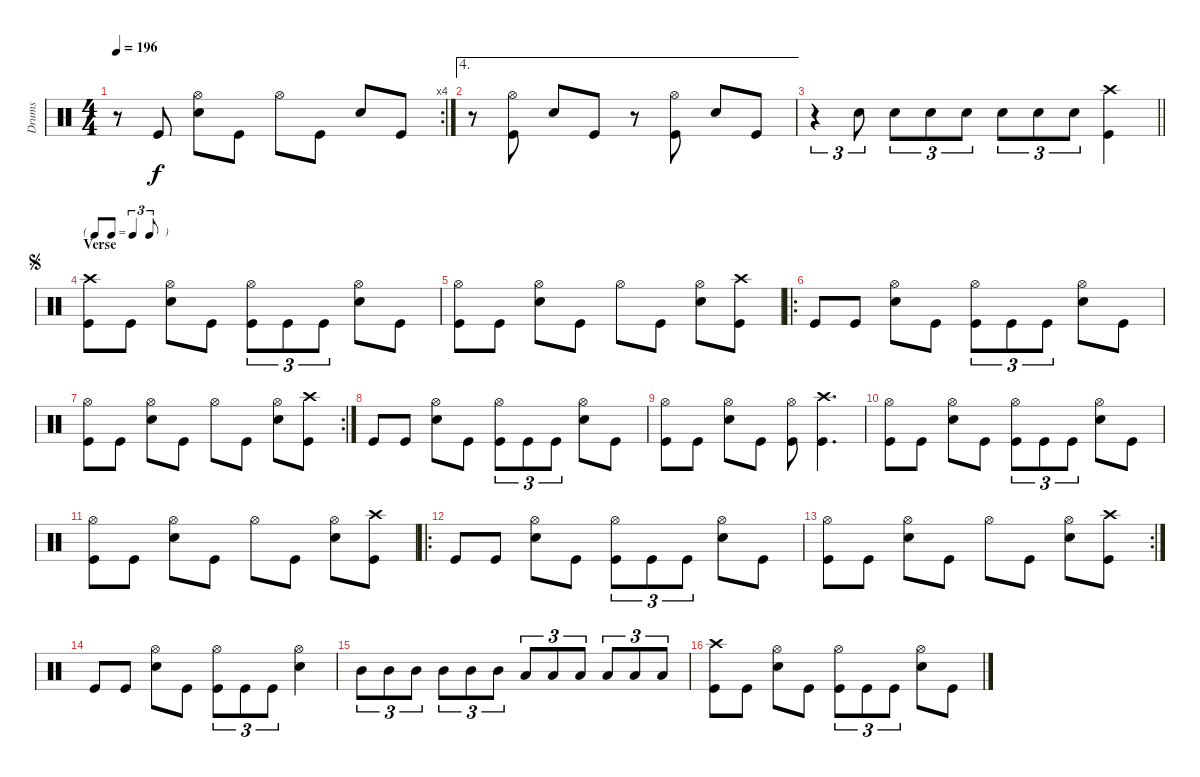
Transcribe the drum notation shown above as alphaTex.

\track ("Drums" "Drums") {instrument percussion}
\staff {score}
\articulation defaults
\rc 4
\ts (4 4)
\tempo 196
\clef neutral
\ks c
r.8{dy f} "Kick (hit)".8 ("Hi-Hat (open)" "Snare (hit) 2").8 "Kick (hit)".8 "Hi-Hat (open)".8 "Kick (hit)".8 "Snare (hit) 2".8 "Kick (hit)".8 |
\ae 4
r.8 ("Hi-Hat (open)" "Kick (hit)").8 "Snare (hit) 2".8 "Kick (hit)".8 r.8 ("Hi-Hat (open)" "Kick (hit)").8 "Snare (hit) 2".8 "Kick (hit)".8 |
\barLineRight lightlight
r.4{tu (3 2)} "Snare (hit) 2".8{tu (3 2)} "Snare (hit) 2".8{tu (3 2)} "Snare (hit) 2".8{tu (3 2)} "Snare (hit) 2".8{tu (3 2)} "Snare (hit) 2".8{tu (3 2)} "Snare (hit) 2".8{tu (3 2)} "Snare (hit) 2".8{tu (3 2)} ("Crash high (hit)" "Kick (hit)").4 |
\tf triplet8th
\section ("" "Verse")
\jump segno
("Crash high (hit)" "Kick (hit)").8 "Kick (hit)".8 ("Hi-Hat (open)" "Snare (hit) 2").8 "Kick (hit)".8 ("Hi-Hat (open)" "Kick (hit)").8{tu (3 2)} "Kick (hit)".8{tu (3 2)} "Kick (hit)".8{tu (3 2)} ("Hi-Hat (open)" "Snare (hit) 2").8 "Kick (hit)".8 |
("Hi-Hat (open)" "Kick (hit)").8 "Kick (hit)".8 ("Hi-Hat (open)" "Snare (hit) 2").8 "Kick (hit)".8 "Hi-Hat (open)".8 "Kick (hit)".8 ("Hi-Hat (open)" "Snare (hit) 2").8 ("Crash high (hit)" "Kick (hit)").8 |
\ro "Kick (hit)".8 "Kick (hit)".8
("Hi-Hat (open)" "Snare (hit) 2").8 "Kick (hit)".8 ("Hi-Hat (open)" "Kick (hit)").8{tu (3 2)} "Kick (hit)".8{tu (3 2)} "Kick (hit)".8{tu (3 2)} ("Hi-Hat (open)" "Snare (hit) 2").8 "Kick (hit)".8 |
\rc 2
("Hi-Hat (open)" "Kick (hit)").8 "Kick (hit)".8 ("Hi-Hat (open)" "Snare (hit) 2").8 "Kick (hit)".8 "Hi-Hat (open)".8 "Kick (hit)".8 ("Hi-Hat (open)" "Snare (hit) 2").8 ("Crash high (hit)" "Kick (hit)").8 |
"Kick (hit)".8 "Kick (hit)".8 ("Hi-Hat (open)" "Snare (hit) 2").8 "Kick (hit)".8 ("Hi-Hat (open)" "Kick (hit)").8{tu (3 2)} "Kick (hit)".8{tu (3 2)} "Kick (hit)".8{tu (3 2)} ("Hi-Hat (open)" "Snare (hit) 2").8 "Kick (hit)".8 |
("Hi-Hat (open)" "Kick (hit)").8 "Kick (hit)".8 ("Hi-Hat (open)" "Snare (hit) 2").8 "Kick (hit)".8 ("Hi-Hat (open)" "Kick (hit)").8 ("Crash high (hit)" "Kick (hit)").4{d} |
("Hi-Hat (open)" "Kick (hit)").8 "Kick (hit)".8 ("Hi-Hat (open)" "Snare (hit) 2").8 "Kick (hit)".8 ("Hi-Hat (open)" "Kick (hit)").8{tu (3 2)} "Kick (hit)".8{tu (3 2)} "Kick (hit)".8{tu (3 2)} ("Hi-Hat (open)" "Snare (hit) 2").8 "Kick (hit)".8 |
("Hi-Hat (open)" "Kick (hit)").8 "Kick (hit)".8 ("Hi-Hat (open)" "Snare (hit) 2").8 "Kick (hit)".8 "Hi-Hat (open)".8 "Kick (hit)".8 ("Hi-Hat (open)" "Snare (hit) 2").8 ("Crash high (hit)" "Kick (hit)").8 |
\ro "Kick (hit)".8 "Kick (hit)".8
("Hi-Hat (open)" "Snare (hit) 2").8 "Kick (hit)".8 ("Hi-Hat (open)" "Kick (hit)").8{tu (3 2)} "Kick (hit)".8{tu (3 2)} "Kick (hit)".8{tu (3 2)} ("Hi-Hat (open)" "Snare (hit) 2").8 "Kick (hit)".8 |
\rc 2
("Hi-Hat (open)" "Kick (hit)").8 "Kick (hit)".8 ("Hi-Hat (open)" "Snare (hit) 2").8 "Kick (hit)".8 "Hi-Hat (open)".8 "Kick (hit)".8 ("Hi-Hat (open)" "Snare (hit) 2").8 ("Crash high (hit)" "Kick (hit)").8 |
"Kick (hit)".8 "Kick (hit)".8 ("Hi-Hat (open)" "Snare (hit) 2").8 "Kick (hit)".8 ("Hi-Hat (open)" "Kick (hit)").8{tu (3 2)} "Kick (hit)".8{tu (3 2)} "Kick (hit)".8{tu (3 2)} ("Hi-Hat (open)" "Snare (hit) 2").4 |
"Mid Tom (hit)".8{tu (3 2)} "Mid Tom (hit)".8{tu (3 2)} "Mid Tom (hit)".8{tu (3 2)} "Mid Tom (hit)".8{tu (3 2)} "Mid Tom (hit)".8{tu (3 2)} "Mid Tom (hit)".8{tu (3 2)} "Low Tom (hit)".8{tu (3 2)} "Low Tom (hit)".8{tu (3 2)} "Low Tom (hit)".8{tu (3 2)} "Low Tom (hit)".8{tu (3 2)} "Low Tom (hit)".8{tu (3 2)} "Low Tom (hit)".8{tu (3 2)} |
("Crash high (hit)" "Kick (hit)").8 "Kick (hit)".8 ("Hi-Hat (open)" "Snare (hit) 2").8 "Kick (hit)".8 ("Hi-Hat (open)" "Kick (hit)").8{tu (3 2)} "Kick (hit)".8{tu (3 2)} "Kick (hit)".8{tu (3 2)} ("Hi-Hat (open)" "Snare (hit) 2").8 "Kick (hit)".8
